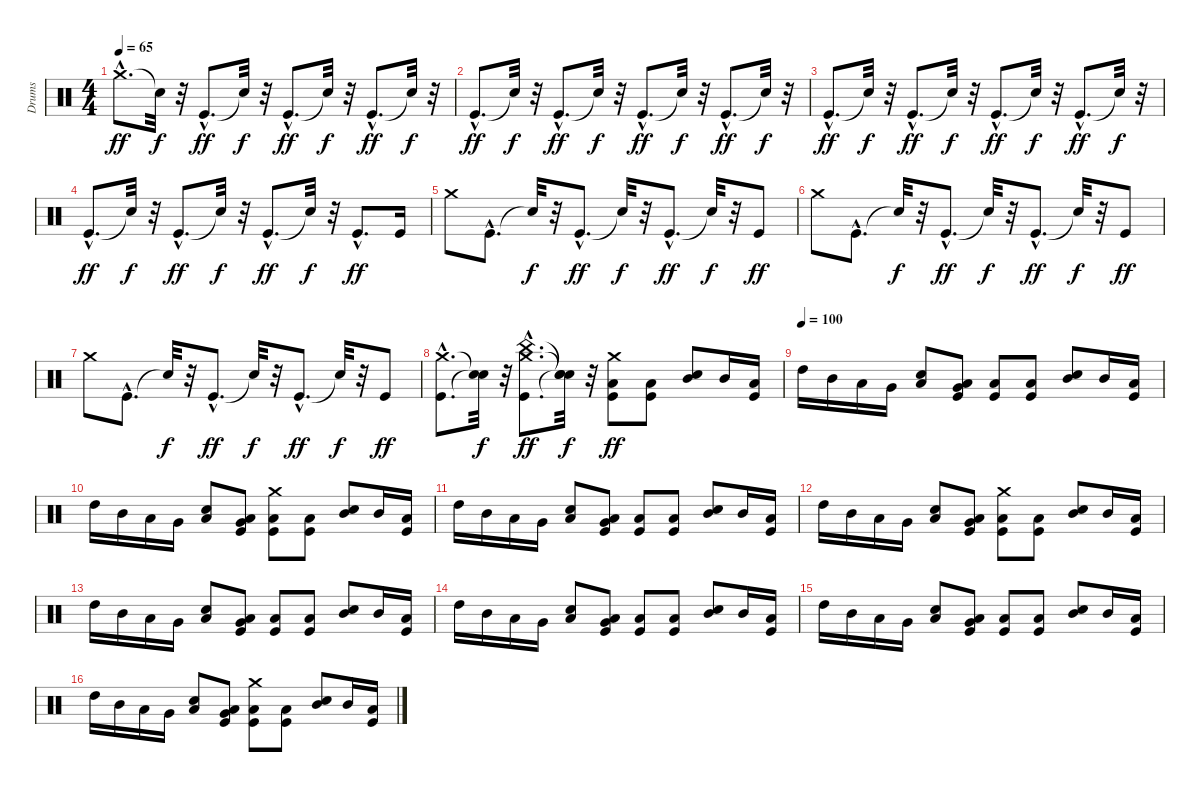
\track ("Drums" "Drums") {instrument percussion}
\staff {score}
\articulation defaults
\ts (4 4)
\tempo 65
\clef neutral
\ks c "Crash medium (hit)"{hac}.8{d dy ff} "Snare (hit)"{t}.32{dy f}
r.32 "Kick (hit)"{hac}.8{d dy ff} "Snare (hit)"{t}.32{dy f} r.32 "Kick (hit)"{hac}.8{d dy ff} "Snare (hit)"{t}.32{dy f} r.32 "Kick (hit)"{hac}.8{d dy ff} "Snare (hit)"{t}.32{dy f} r.32 |
"Kick (hit)"{hac}.8{d dy ff} "Snare (hit)"{t}.32{dy f} r.32 "Kick (hit)"{hac}.8{d dy ff} "Snare (hit)"{t}.32{dy f} r.32 "Kick (hit)"{hac}.8{d dy ff} "Snare (hit)"{t}.32{dy f} r.32 "Kick (hit)"{hac}.8{d dy ff} "Snare (hit)"{t}.32{dy f} r.32 |
"Kick (hit)"{hac}.8{d dy ff} "Snare (hit)"{t}.32{dy f} r.32 "Kick (hit)"{hac}.8{d dy ff} "Snare (hit)"{t}.32{dy f} r.32 "Kick (hit)"{hac}.8{d dy ff} "Snare (hit)"{t}.32{dy f} r.32 "Kick (hit)"{hac}.8{d dy ff} "Snare (hit)"{t}.32{dy f} r.32 |
"Kick (hit)"{hac}.8{d dy ff} "Snare (hit)"{t}.32{dy f} r.32 "Kick (hit)"{hac}.8{d dy ff} "Snare (hit)"{t}.32{dy f} r.32 "Kick (hit)"{hac}.8{d dy ff} "Snare (hit)"{t}.32{dy f} r.32 "Kick (hit)"{hac}.8{d dy ff} "Kick (hit)".16 |
"Crash medium (hit)".8 "Kick (hit)"{hac}.8{d} "Snare (hit)"{t}.32{dy f} r.32 "Kick (hit)"{hac}.8{d dy ff} "Snare (hit)"{t}.32{dy f} r.32 "Kick (hit)"{hac}.8{d dy ff} "Snare (hit)"{t}.32{dy f} r.32 "Kick (hit)".8{dy ff} |
"Crash medium (hit)".8 "Kick (hit)"{hac}.8{d} "Snare (hit)"{t}.32{dy f} r.32 "Kick (hit)"{hac}.8{d dy ff} "Snare (hit)"{t}.32{dy f} r.32 "Kick (hit)"{hac}.8{d dy ff} "Snare (hit)"{t}.32{dy f} r.32 "Kick (hit)".8{dy ff} |
"Crash medium (hit)".8 "Kick (hit)"{hac}.8{d} "Snare (hit)"{t}.32{dy f} r.32 "Kick (hit)"{hac}.8{d dy ff} "Snare (hit)"{t}.32{dy f} r.32 "Kick (hit)"{hac}.8{d dy ff} "Snare (hit)"{t}.32{dy f} r.32 "Kick (hit)".8{dy ff} |
("Kick (hit)"{hac} "Crash medium (hit)"{hac}).8{d} ("Snare (hit)"{t} "Snare (hit)"{t}).32{dy f} r.32 ("Kick (hit)"{hac} "China (hit)"{hac} "Crash medium (hit)"{hac}).8{d dy ff} ("Snare (hit)"{t} "Snare (hit)"{t} "Snare (hit)"{t}).32{dy f} r.32 ("Kick (hit)" "Low Tom (hit)" "Crash medium (hit)").8{dy ff} ("Kick (hit)" "Low Tom (hit)").8 ("Electric Snare (hit)" "Mid Tom (hit)").8 "Mid Tom (hit)".16 ("Kick (hit)" "Low Tom (hit)").16 |
\tempo (100)
"High Tom (hit)".16 "Mid Tom (hit)".16 "Low Tom (hit)".16 "Very Low Tom (hit)".16 ("Electric Snare (hit)" "Low Tom (hit)").8 ("Kick (hit)" "Very Low Tom (hit)" "Low Tom (hit)").8 ("Kick (hit)" "Low Tom (hit)").8 ("Kick (hit)" "Low Tom (hit)").8 ("Electric Snare (hit)" "Mid Tom (hit)").8 "Mid Tom (hit)".16 ("Kick (hit)" "Low Tom (hit)").16 |
"High Tom (hit)".16 "Mid Tom (hit)".16 "Low Tom (hit)".16 "Very Low Tom (hit)".16 ("Electric Snare (hit)" "Low Tom (hit)").8 ("Kick (hit)" "Very Low Tom (hit)" "Low Tom (hit)").8 ("Kick (hit)" "Low Tom (hit)" "Crash medium (hit)").8 ("Kick (hit)" "Low Tom (hit)").8 ("Electric Snare (hit)" "Mid Tom (hit)").8 "Mid Tom (hit)".16 ("Kick (hit)" "Low Tom (hit)").16 |
"High Tom (hit)".16 "Mid Tom (hit)".16 "Low Tom (hit)".16 "Very Low Tom (hit)".16 ("Electric Snare (hit)" "Low Tom (hit)").8 ("Kick (hit)" "Very Low Tom (hit)" "Low Tom (hit)").8 ("Kick (hit)" "Low Tom (hit)").8 ("Kick (hit)" "Low Tom (hit)").8 ("Electric Snare (hit)" "Mid Tom (hit)").8 "Mid Tom (hit)".16 ("Kick (hit)" "Low Tom (hit)").16 |
"High Tom (hit)".16 "Mid Tom (hit)".16 "Low Tom (hit)".16 "Very Low Tom (hit)".16 ("Electric Snare (hit)" "Low Tom (hit)").8 ("Kick (hit)" "Very Low Tom (hit)" "Low Tom (hit)").8 ("Kick (hit)" "Low Tom (hit)" "Crash medium (hit)").8 ("Kick (hit)" "Low Tom (hit)").8 ("Electric Snare (hit)" "Mid Tom (hit)").8 "Mid Tom (hit)".16 ("Kick (hit)" "Low Tom (hit)").16 |
"High Tom (hit)".16 "Mid Tom (hit)".16 "Low Tom (hit)".16 "Very Low Tom (hit)".16 ("Electric Snare (hit)" "Low Tom (hit)").8 ("Kick (hit)" "Very Low Tom (hit)" "Low Tom (hit)").8 ("Kick (hit)" "Low Tom (hit)").8 ("Kick (hit)" "Low Tom (hit)").8 ("Electric Snare (hit)" "Mid Tom (hit)").8 "Mid Tom (hit)".16 ("Kick (hit)" "Low Tom (hit)").16 |
"High Tom (hit)".16 "Mid Tom (hit)".16 "Low Tom (hit)".16 "Very Low Tom (hit)".16 ("Electric Snare (hit)" "Low Tom (hit)").8 ("Kick (hit)" "Very Low Tom (hit)" "Low Tom (hit)").8 ("Kick (hit)" "Low Tom (hit)").8 ("Kick (hit)" "Low Tom (hit)").8 ("Electric Snare (hit)" "Mid Tom (hit)").8 "Mid Tom (hit)".16 ("Kick (hit)" "Low Tom (hit)").16 |
"High Tom (hit)".16 "Mid Tom (hit)".16 "Low Tom (hit)".16 "Very Low Tom (hit)".16 ("Electric Snare (hit)" "Low Tom (hit)").8 ("Kick (hit)" "Very Low Tom (hit)" "Low Tom (hit)").8 ("Kick (hit)" "Low Tom (hit)").8 ("Kick (hit)" "Low Tom (hit)").8 ("Electric Snare (hit)" "Mid Tom (hit)").8 "Mid Tom (hit)".16 ("Kick (hit)" "Low Tom (hit)").16 |
"High Tom (hit)".16 "Mid Tom (hit)".16 "Low Tom (hit)".16 "Very Low Tom (hit)".16 ("Electric Snare (hit)" "Low Tom (hit)").8 ("Kick (hit)" "Very Low Tom (hit)" "Low Tom (hit)").8 ("Kick (hit)" "Low Tom (hit)" "Crash medium (hit)").8 ("Kick (hit)" "Low Tom (hit)").8 ("Electric Snare (hit)" "Mid Tom (hit)").8 "Mid Tom (hit)".16 ("Kick (hit)" "Low Tom (hit)").16
